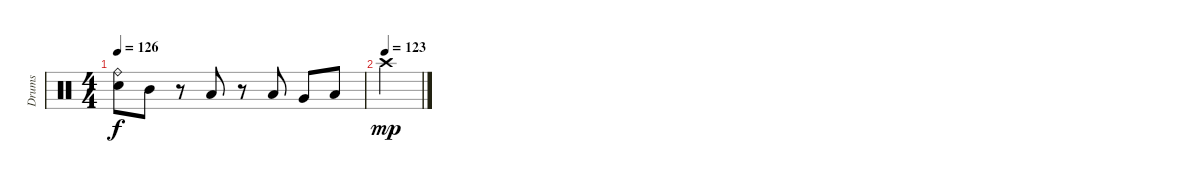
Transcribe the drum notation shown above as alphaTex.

\track ("Drums" "Drums") {instrument percussion}
\staff {score}
\articulation defaults
\ts (4 4)
\tempo 126
\clef neutral
\ks c
("Ride (bell)" "Electric Snare (hit)").8{dy f} "Mid Tom (hit)".8 r.8 "Low Tom (hit)".8 r.8 "Low Tom (hit)".8 "Very Low Tom (hit)".8 "Low Floor Tom (hit)".8 |
\tempo (123)
"Crash high (hit)".4{dy mp}
